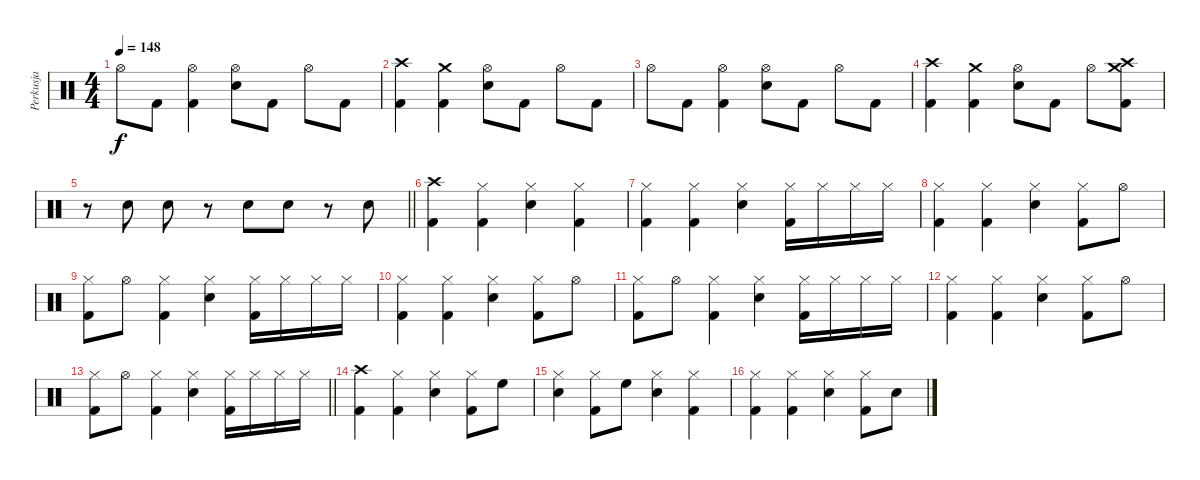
\track ("Perkusja" "Perkusja") {instrument percussion}
\staff {score}
\articulation defaults
\ts (4 4)
\tempo 148
\clef neutral
\ks c "Hi-Hat (open)".8{dy f} "Kick (hit) 2".8
("Hi-Hat (open)" "Kick (hit) 2").4 ("Hi-Hat (open)" "Snare (hit) 2").8 "Kick (hit) 2".8 "Hi-Hat (open)".8 "Kick (hit) 2".8 |
("Crash high (hit)" "Kick (hit) 2").4 ("Crash medium (hit)" "Kick (hit) 2").4 ("Hi-Hat (open)" "Snare (hit) 2").8 "Kick (hit) 2".8 "Hi-Hat (open)".8 "Kick (hit) 2".8 |
"Hi-Hat (open)".8 "Kick (hit) 2".8 ("Hi-Hat (open)" "Kick (hit) 2").4 ("Hi-Hat (open)" "Snare (hit) 2").8 "Kick (hit) 2".8 "Hi-Hat (open)".8 "Kick (hit) 2".8 |
("Crash high (hit)" "Kick (hit) 2").4 ("Crash medium (hit)" "Kick (hit) 2").4 ("Hi-Hat (open)" "Snare (hit) 2").8 "Kick (hit) 2".8 "Hi-Hat (open)".8 ("Crash medium (hit)" "Crash high (hit)" "Kick (hit) 2").8 |
\barLineRight lightlight
r.8 "Snare (hit) 2".8 "Snare (hit) 2".8 r.8 "Snare (hit) 2".8 "Snare (hit) 2".8 r.8 "Snare (hit) 2".8 |
("Crash high (hit)" "Kick (hit) 2").4 ("Hi-Hat (closed)" "Kick (hit) 2").4 ("Hi-Hat (closed)" "Snare (hit) 2").4 ("Hi-Hat (closed)" "Kick (hit) 2").4 |
("Hi-Hat (closed)" "Kick (hit) 2").4 ("Hi-Hat (closed)" "Kick (hit) 2").4 ("Hi-Hat (closed)" "Snare (hit) 2").4 ("Hi-Hat (closed)" "Kick (hit) 2").16 "Hi-Hat (closed)".16 "Hi-Hat (closed)".16 "Hi-Hat (closed)".16 |
("Hi-Hat (closed)" "Kick (hit) 2").4 ("Hi-Hat (closed)" "Kick (hit) 2").4 ("Hi-Hat (closed)" "Snare (hit) 2").4 ("Hi-Hat (closed)" "Kick (hit) 2").8 "Hi-Hat (open)".8 |
("Hi-Hat (closed)" "Kick (hit) 2").8 "Hi-Hat (open)".8 ("Hi-Hat (closed)" "Kick (hit) 2").4 ("Hi-Hat (closed)" "Snare (hit) 2").4 ("Hi-Hat (closed)" "Kick (hit) 2").16 "Hi-Hat (closed)".16 "Hi-Hat (closed)".16 "Hi-Hat (closed)".16 |
("Hi-Hat (closed)" "Kick (hit) 2").4 ("Hi-Hat (closed)" "Kick (hit) 2").4 ("Hi-Hat (closed)" "Snare (hit) 2").4 ("Hi-Hat (closed)" "Kick (hit) 2").8 "Hi-Hat (open)".8 |
("Hi-Hat (closed)" "Kick (hit) 2").8 "Hi-Hat (open)".8 ("Hi-Hat (closed)" "Kick (hit) 2").4 ("Hi-Hat (closed)" "Snare (hit) 2").4 ("Hi-Hat (closed)" "Kick (hit) 2").16 "Hi-Hat (closed)".16 "Hi-Hat (closed)".16 "Hi-Hat (closed)".16 |
("Hi-Hat (closed)" "Kick (hit) 2").4 ("Hi-Hat (closed)" "Kick (hit) 2").4 ("Hi-Hat (closed)" "Snare (hit) 2").4 ("Hi-Hat (closed)" "Kick (hit) 2").8 "Hi-Hat (open)".8 |
\barLineRight lightlight
("Hi-Hat (closed)" "Kick (hit) 2").8 "Hi-Hat (open)".8 ("Hi-Hat (closed)" "Kick (hit) 2").4 ("Hi-Hat (closed)" "Snare (hit) 2").4 ("Hi-Hat (closed)" "Kick (hit) 2").16 "Hi-Hat (closed)".16 "Hi-Hat (closed)".16 "Hi-Hat (closed)".16 |
("Crash high (hit)" "Kick (hit) 2").4 ("Hi-Hat (closed)" "Kick (hit) 2").4 ("Hi-Hat (closed)" "Snare (hit) 2").4 ("Hi-Hat (closed)" "Kick (hit) 2").8 "High Floor Tom (hit)".8 |
("Hi-Hat (closed)" "Snare (hit) 2").4 ("Hi-Hat (closed)" "Kick (hit) 2").8 "High Floor Tom (hit)".8 ("Hi-Hat (closed)" "Snare (hit) 2").4 ("Hi-Hat (closed)" "Kick (hit) 2").4 |
("Hi-Hat (closed)" "Kick (hit) 2").4 ("Hi-Hat (closed)" "Kick (hit) 2").4 ("Hi-Hat (closed)" "Snare (hit) 2").4 ("Hi-Hat (closed)" "Kick (hit) 2").8 "Snare (hit) 2".8
